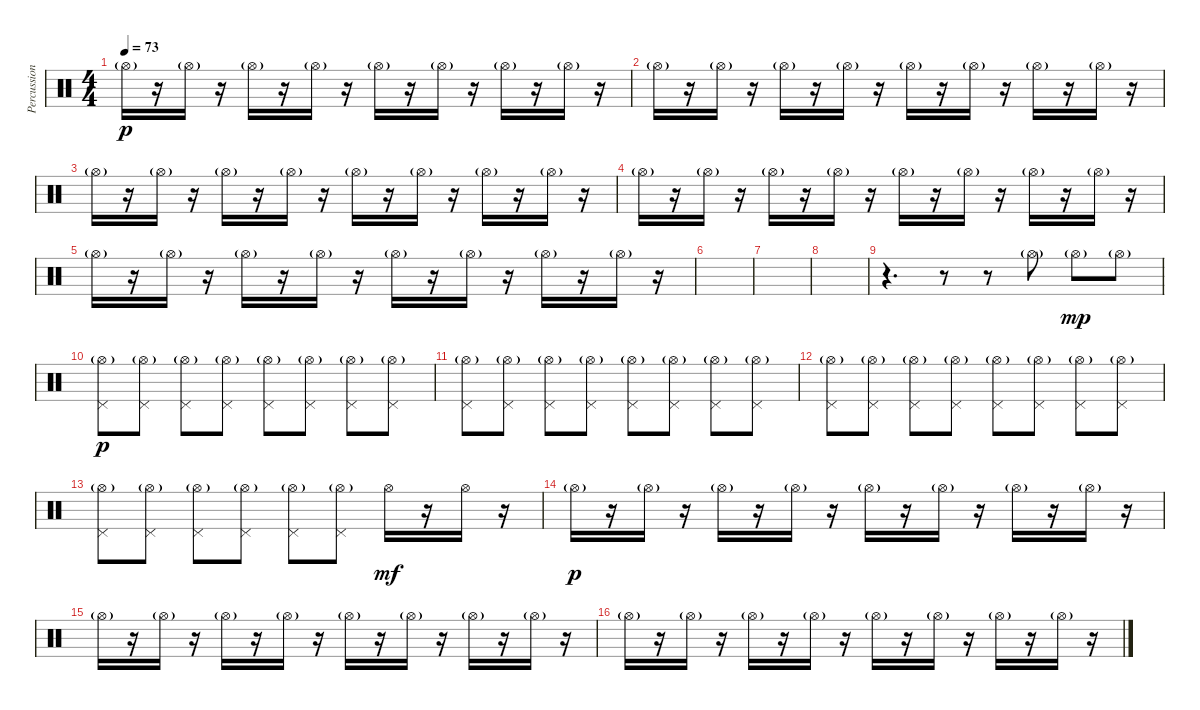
\track ("Percussion" "Percussion") {instrument percussion}
\staff {score}
\articulation defaults
\ts (4 4)
\tempo 73
\clef neutral
\ks c "Hi-Hat (open)"{g}.16{dy p}
r.16 "Hi-Hat (open)"{g}.16 r.16 "Hi-Hat (open)"{g}.16 r.16 "Hi-Hat (open)"{g}.16 r.16 "Hi-Hat (open)"{g}.16 r.16 "Hi-Hat (open)"{g}.16 r.16 "Hi-Hat (open)"{g}.16 r.16 "Hi-Hat (open)"{g}.16 r.16 |
"Hi-Hat (open)"{g}.16 r.16 "Hi-Hat (open)"{g}.16 r.16 "Hi-Hat (open)"{g}.16 r.16 "Hi-Hat (open)"{g}.16 r.16 "Hi-Hat (open)"{g}.16 r.16 "Hi-Hat (open)"{g}.16 r.16 "Hi-Hat (open)"{g}.16 r.16 "Hi-Hat (open)"{g}.16 r.16 |
"Hi-Hat (open)"{g}.16 r.16 "Hi-Hat (open)"{g}.16 r.16 "Hi-Hat (open)"{g}.16 r.16 "Hi-Hat (open)"{g}.16 r.16 "Hi-Hat (open)"{g}.16 r.16 "Hi-Hat (open)"{g}.16 r.16 "Hi-Hat (open)"{g}.16 r.16 "Hi-Hat (open)"{g}.16 r.16 |
"Hi-Hat (open)"{g}.16 r.16 "Hi-Hat (open)"{g}.16 r.16 "Hi-Hat (open)"{g}.16 r.16 "Hi-Hat (open)"{g}.16 r.16 "Hi-Hat (open)"{g}.16 r.16 "Hi-Hat (open)"{g}.16 r.16 "Hi-Hat (open)"{g}.16 r.16 "Hi-Hat (open)"{g}.16 r.16 |
"Hi-Hat (open)"{g}.16 r.16 "Hi-Hat (open)"{g}.16 r.16 "Hi-Hat (open)"{g}.16 r.16 "Hi-Hat (open)"{g}.16 r.16 "Hi-Hat (open)"{g}.16 r.16 "Hi-Hat (open)"{g}.16 r.16 "Hi-Hat (open)"{g}.16 r.16 "Hi-Hat (open)"{g}.16 r.16 |
|
|
|
r.4{d} r.8 r.8 "Hi-Hat (open)"{g}.8 "Hi-Hat (open)"{g}.8{dy mp} "Hi-Hat (open)"{g}.8 |
("Pedal Hi-Hat (hit)" "Hi-Hat (open)"{g}).8{dy p} ("Pedal Hi-Hat (hit)" "Hi-Hat (open)"{g}).8 ("Pedal Hi-Hat (hit)" "Hi-Hat (open)"{g}).8 ("Pedal Hi-Hat (hit)" "Hi-Hat (open)"{g}).8 ("Pedal Hi-Hat (hit)" "Hi-Hat (open)"{g}).8 ("Pedal Hi-Hat (hit)" "Hi-Hat (open)"{g}).8 ("Pedal Hi-Hat (hit)" "Hi-Hat (open)"{g}).8 ("Pedal Hi-Hat (hit)" "Hi-Hat (open)"{g}).8 |
("Pedal Hi-Hat (hit)" "Hi-Hat (open)"{g}).8 ("Pedal Hi-Hat (hit)" "Hi-Hat (open)"{g}).8 ("Pedal Hi-Hat (hit)" "Hi-Hat (open)"{g}).8 ("Pedal Hi-Hat (hit)" "Hi-Hat (open)"{g}).8 ("Pedal Hi-Hat (hit)" "Hi-Hat (open)"{g}).8 ("Pedal Hi-Hat (hit)" "Hi-Hat (open)"{g}).8 ("Pedal Hi-Hat (hit)" "Hi-Hat (open)"{g}).8 ("Pedal Hi-Hat (hit)" "Hi-Hat (open)"{g}).8 |
("Pedal Hi-Hat (hit)" "Hi-Hat (open)"{g}).8 ("Pedal Hi-Hat (hit)" "Hi-Hat (open)"{g}).8 ("Pedal Hi-Hat (hit)" "Hi-Hat (open)"{g}).8 ("Pedal Hi-Hat (hit)" "Hi-Hat (open)"{g}).8 ("Pedal Hi-Hat (hit)" "Hi-Hat (open)"{g}).8 ("Pedal Hi-Hat (hit)" "Hi-Hat (open)"{g}).8 ("Pedal Hi-Hat (hit)" "Hi-Hat (open)"{g}).8 ("Pedal Hi-Hat (hit)" "Hi-Hat (open)"{g}).8 |
("Pedal Hi-Hat (hit)" "Hi-Hat (open)"{g}).8 ("Pedal Hi-Hat (hit)" "Hi-Hat (open)"{g}).8 ("Pedal Hi-Hat (hit)" "Hi-Hat (open)"{g}).8 ("Pedal Hi-Hat (hit)" "Hi-Hat (open)"{g}).8 ("Pedal Hi-Hat (hit)" "Hi-Hat (open)"{g}).8 ("Pedal Hi-Hat (hit)" "Hi-Hat (open)"{g}).8 "Hi-Hat (open)".16{dy mf} r.16 "Hi-Hat (open)".16 r.16 |
"Hi-Hat (open)"{g}.16{dy p} r.16 "Hi-Hat (open)"{g}.16 r.16 "Hi-Hat (open)"{g}.16 r.16 "Hi-Hat (open)"{g}.16 r.16 "Hi-Hat (open)"{g}.16 r.16 "Hi-Hat (open)"{g}.16 r.16 "Hi-Hat (open)"{g}.16 r.16 "Hi-Hat (open)"{g}.16 r.16 |
"Hi-Hat (open)"{g}.16 r.16 "Hi-Hat (open)"{g}.16 r.16 "Hi-Hat (open)"{g}.16 r.16 "Hi-Hat (open)"{g}.16 r.16 "Hi-Hat (open)"{g}.16 r.16 "Hi-Hat (open)"{g}.16 r.16 "Hi-Hat (open)"{g}.16 r.16 "Hi-Hat (open)"{g}.16 r.16 |
"Hi-Hat (open)"{g}.16 r.16 "Hi-Hat (open)"{g}.16 r.16 "Hi-Hat (open)"{g}.16 r.16 "Hi-Hat (open)"{g}.16 r.16 "Hi-Hat (open)"{g}.16 r.16 "Hi-Hat (open)"{g}.16 r.16 "Hi-Hat (open)"{g}.16 r.16 "Hi-Hat (open)"{g}.16 r.16
